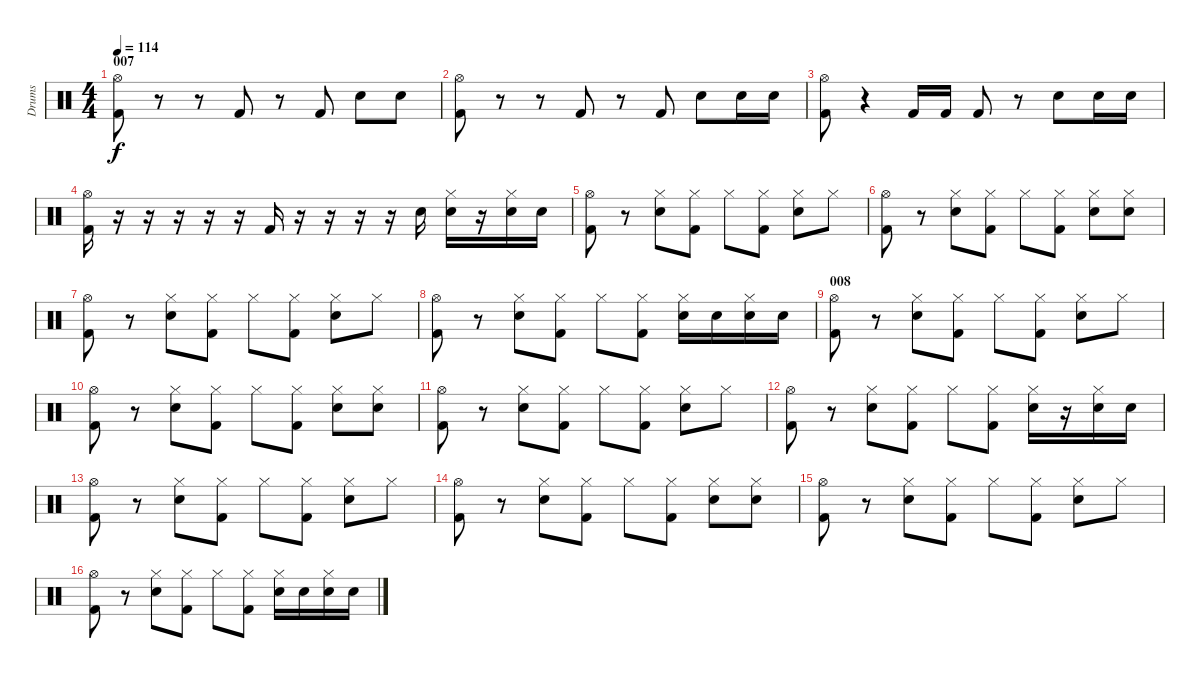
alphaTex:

\track ("Drums" "Drums") {instrument percussion}
\staff {score}
\articulation defaults
\ts (4 4)
\section ("" "007")
\tempo 114
\clef neutral
\ks c
("Kick (hit) 2" "Hi-Hat (open)").8{dy f} r.8 r.8 "Kick (hit) 2".8 r.8 "Kick (hit) 2".8 "Electric Snare (hit)".8 "Electric Snare (hit)".8 |
("Kick (hit) 2" "Hi-Hat (open)").8 r.8 r.8 "Kick (hit) 2".8 r.8 "Kick (hit) 2".8 "Electric Snare (hit)".8 "Electric Snare (hit)".16 "Electric Snare (hit)".16 |
("Kick (hit) 2" "Hi-Hat (open)").8 r.4 "Kick (hit) 2".16 "Kick (hit) 2".16 "Kick (hit) 2".8 r.8 "Electric Snare (hit)".8 "Electric Snare (hit)".16 "Electric Snare (hit)".16 |
("Kick (hit) 2" "Hi-Hat (open)").16 r.16 r.16 r.16 r.16 r.16 "Kick (hit) 2".16 r.16 r.16 r.16 r.16 "Electric Snare (hit)".16 ("Electric Snare (hit)" "Hi-Hat (closed)").16 r.16 ("Electric Snare (hit)" "Hi-Hat (closed)").16 "Electric Snare (hit)".16 |
("Kick (hit) 2" "Hi-Hat (open)").8 r.8 ("Electric Snare (hit)" "Hi-Hat (closed)").8 ("Kick (hit) 2" "Hi-Hat (closed)").8 "Hi-Hat (closed)".8 ("Kick (hit) 2" "Hi-Hat (closed)").8 ("Electric Snare (hit)" "Hi-Hat (closed)").8 "Hi-Hat (closed)".8 |
("Kick (hit) 2" "Hi-Hat (open)").8 r.8 ("Electric Snare (hit)" "Hi-Hat (closed)").8 ("Kick (hit) 2" "Hi-Hat (closed)").8 "Hi-Hat (closed)".8 ("Kick (hit) 2" "Hi-Hat (closed)").8 ("Electric Snare (hit)" "Hi-Hat (closed)").8 ("Electric Snare (hit)" "Hi-Hat (closed)").8 |
("Kick (hit) 2" "Hi-Hat (open)").8 r.8 ("Electric Snare (hit)" "Hi-Hat (closed)").8 ("Kick (hit) 2" "Hi-Hat (closed)").8 "Hi-Hat (closed)".8 ("Kick (hit) 2" "Hi-Hat (closed)").8 ("Electric Snare (hit)" "Hi-Hat (closed)").8 "Hi-Hat (closed)".8 |
("Kick (hit) 2" "Hi-Hat (open)").8 r.8 ("Electric Snare (hit)" "Hi-Hat (closed)").8 ("Kick (hit) 2" "Hi-Hat (closed)").8 "Hi-Hat (closed)".8 ("Kick (hit) 2" "Hi-Hat (closed)").8 ("Electric Snare (hit)" "Hi-Hat (closed)").16 "Electric Snare (hit)".16 ("Electric Snare (hit)" "Hi-Hat (closed)").16 "Electric Snare (hit)".16 |
\section ("" "008")
("Kick (hit) 2" "Hi-Hat (open)").8 r.8 ("Electric Snare (hit)" "Hi-Hat (closed)").8 ("Kick (hit) 2" "Hi-Hat (closed)").8 "Hi-Hat (closed)".8 ("Kick (hit) 2" "Hi-Hat (closed)").8 ("Electric Snare (hit)" "Hi-Hat (closed)").8 "Hi-Hat (closed)".8 |
("Kick (hit) 2" "Hi-Hat (open)").8 r.8 ("Electric Snare (hit)" "Hi-Hat (closed)").8 ("Kick (hit) 2" "Hi-Hat (closed)").8 "Hi-Hat (closed)".8 ("Kick (hit) 2" "Hi-Hat (closed)").8 ("Electric Snare (hit)" "Hi-Hat (closed)").8 ("Electric Snare (hit)" "Hi-Hat (closed)").8 |
("Kick (hit) 2" "Hi-Hat (open)").8 r.8 ("Electric Snare (hit)" "Hi-Hat (closed)").8 ("Kick (hit) 2" "Hi-Hat (closed)").8 "Hi-Hat (closed)".8 ("Kick (hit) 2" "Hi-Hat (closed)").8 ("Electric Snare (hit)" "Hi-Hat (closed)").8 "Hi-Hat (closed)".8 |
("Kick (hit) 2" "Hi-Hat (open)").8 r.8 ("Electric Snare (hit)" "Hi-Hat (closed)").8 ("Kick (hit) 2" "Hi-Hat (closed)").8 "Hi-Hat (closed)".8 ("Kick (hit) 2" "Hi-Hat (closed)").8 ("Electric Snare (hit)" "Hi-Hat (closed)").16 r.16 ("Electric Snare (hit)" "Hi-Hat (closed)").16 "Electric Snare (hit)".16 |
("Kick (hit) 2" "Hi-Hat (open)").8 r.8 ("Electric Snare (hit)" "Hi-Hat (closed)").8 ("Kick (hit) 2" "Hi-Hat (closed)").8 "Hi-Hat (closed)".8 ("Kick (hit) 2" "Hi-Hat (closed)").8 ("Electric Snare (hit)" "Hi-Hat (closed)").8 "Hi-Hat (closed)".8 |
("Kick (hit) 2" "Hi-Hat (open)").8 r.8 ("Electric Snare (hit)" "Hi-Hat (closed)").8 ("Kick (hit) 2" "Hi-Hat (closed)").8 "Hi-Hat (closed)".8 ("Kick (hit) 2" "Hi-Hat (closed)").8 ("Electric Snare (hit)" "Hi-Hat (closed)").8 ("Electric Snare (hit)" "Hi-Hat (closed)").8 |
("Kick (hit) 2" "Hi-Hat (open)").8 r.8 ("Electric Snare (hit)" "Hi-Hat (closed)").8 ("Kick (hit) 2" "Hi-Hat (closed)").8 "Hi-Hat (closed)".8 ("Kick (hit) 2" "Hi-Hat (closed)").8 ("Electric Snare (hit)" "Hi-Hat (closed)").8 "Hi-Hat (closed)".8 |
("Kick (hit) 2" "Hi-Hat (open)").8 r.8 ("Electric Snare (hit)" "Hi-Hat (closed)").8 ("Kick (hit) 2" "Hi-Hat (closed)").8 "Hi-Hat (closed)".8 ("Kick (hit) 2" "Hi-Hat (closed)").8 ("Electric Snare (hit)" "Hi-Hat (closed)").16 "Electric Snare (hit)".16 ("Electric Snare (hit)" "Hi-Hat (closed)").16 "Electric Snare (hit)".16
